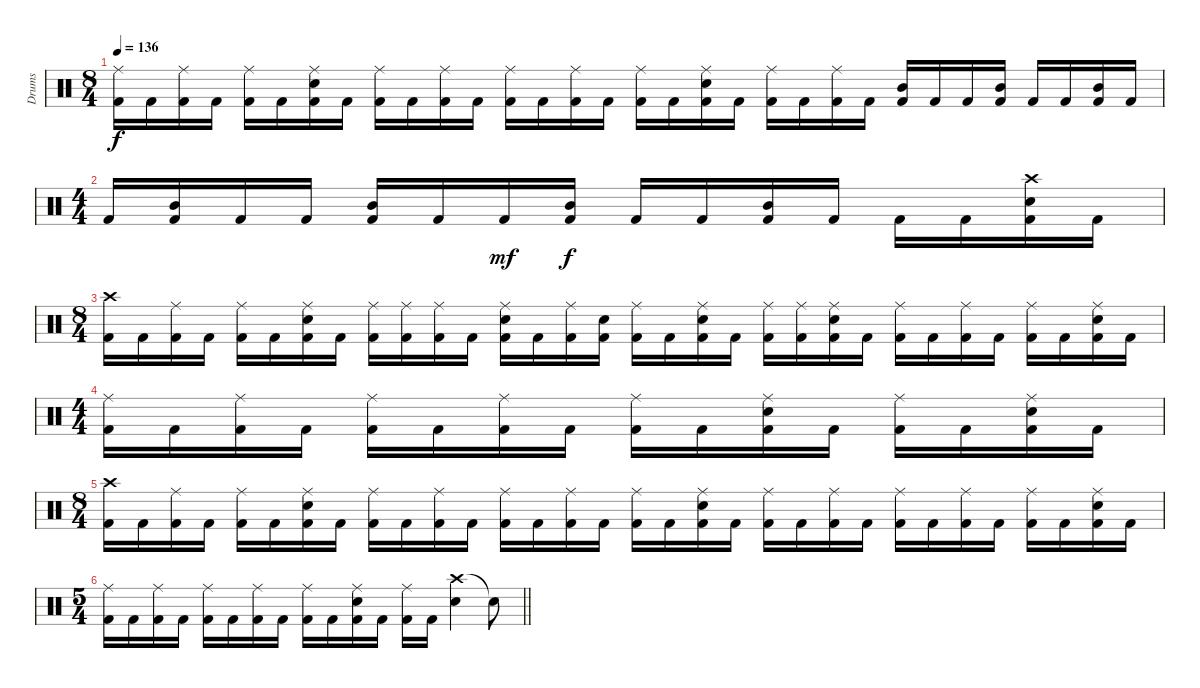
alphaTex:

\track ("Drums" "Drums") {instrument percussion}
\staff {score}
\articulation defaults
\ts (8 4)
\tempo 136
\clef neutral
\ks c
("Ride (middle)" "Kick (hit) 2").16{dy f} "Kick (hit) 2".16 ("Ride (middle)" "Kick (hit) 2").16 "Kick (hit) 2".16 ("Ride (middle)" "Kick (hit) 2").16 "Kick (hit) 2".16 ("Ride (middle)" "Snare (hit) 2" "Kick (hit) 2").16 "Kick (hit) 2".16 ("Ride (middle)" "Kick (hit) 2").16 "Kick (hit) 2".16 ("Ride (middle)" "Kick (hit) 2").16 "Kick (hit) 2".16 ("Ride (middle)" "Kick (hit) 2").16 "Kick (hit) 2".16 ("Ride (middle)" "Kick (hit) 2").16 "Kick (hit) 2".16 ("Ride (middle)" "Kick (hit) 2").16 "Kick (hit) 2".16 ("Ride (middle)" "Snare (hit) 2" "Kick (hit) 2").16 "Kick (hit) 2".16 ("Ride (middle)" "Kick (hit) 2").16 "Kick (hit) 2".16 ("Ride (middle)" "Kick (hit) 2").16 "Kick (hit) 2".16 ("Mid Tom (hit)" "Kick (hit) 2").16 "Kick (hit) 2".16 "Kick (hit) 2".16 ("Mid Tom (hit)" "Kick (hit) 2").16 "Kick (hit) 2".16 "Kick (hit) 2".16 ("Mid Tom (hit)" "Kick (hit) 2").16 "Kick (hit) 2".16 |
\ts (4 4)
"Kick (hit) 2".16 ("Mid Tom (hit)" "Kick (hit) 2").16 "Kick (hit) 2".16 "Kick (hit) 2".16 ("Mid Tom (hit)" "Kick (hit) 2").16 "Kick (hit) 2".16 "Kick (hit) 2".16{dy mf} ("Mid Tom (hit)" "Kick (hit) 2").16{dy f} "Kick (hit) 2".16 "Kick (hit) 2".16 ("Mid Tom (hit)" "Kick (hit) 2").16 "Kick (hit) 2".16 "Kick (hit) 2".16 "Kick (hit) 2".16 ("Crash high (hit)" "Snare (hit) 2" "Kick (hit) 2").16 "Kick (hit) 2".16 |
\ts (8 4)
("Crash high (hit)" "Kick (hit) 2").16 "Kick (hit) 2".16 ("Ride (middle)" "Kick (hit) 2").16 "Kick (hit) 2".16 ("Ride (middle)" "Kick (hit) 2").16 "Kick (hit) 2".16 ("Ride (middle)" "Snare (hit) 2" "Kick (hit) 2").16 "Kick (hit) 2".16 ("Ride (middle)" "Kick (hit) 2").16 ("Ride (middle)" "Kick (hit) 2").16 ("Ride (middle)" "Kick (hit) 2").16 "Kick (hit) 2".16 ("Ride (middle)" "Snare (hit) 2" "Kick (hit) 2").16 "Kick (hit) 2".16 ("Ride (middle)" "Kick (hit) 2").16 ("Snare (hit) 2" "Kick (hit) 2").16 ("Ride (middle)" "Kick (hit) 2").16 "Kick (hit) 2".16 ("Ride (middle)" "Snare (hit) 2" "Kick (hit) 2").16 "Kick (hit) 2".16 ("Ride (middle)" "Kick (hit) 2").16 ("Ride (middle)" "Kick (hit) 2").16 ("Ride (middle)" "Snare (hit) 2" "Kick (hit) 2").16 "Kick (hit) 2".16 ("Ride (middle)" "Kick (hit) 2").16 "Kick (hit) 2".16 ("Ride (middle)" "Kick (hit) 2").16 "Kick (hit) 2".16 ("Ride (middle)" "Kick (hit) 2").16 "Kick (hit) 2".16 ("Ride (middle)" "Snare (hit) 2" "Kick (hit) 2").16 "Kick (hit) 2".16 |
\ts (4 4)
("Ride (middle)" "Kick (hit) 2").16 "Kick (hit) 2".16 ("Ride (middle)" "Kick (hit) 2").16 "Kick (hit) 2".16 ("Ride (middle)" "Kick (hit) 2").16 "Kick (hit) 2".16 ("Ride (middle)" "Kick (hit) 2").16 "Kick (hit) 2".16 ("Ride (middle)" "Kick (hit) 2").16 "Kick (hit) 2".16 ("Ride (middle)" "Snare (hit) 2" "Kick (hit) 2").16 "Kick (hit) 2".16 ("Ride (middle)" "Kick (hit) 2").16 "Kick (hit) 2".16 ("Ride (middle)" "Snare (hit) 2" "Kick (hit) 2").16 "Kick (hit) 2".16 |
\ts (8 4)
("Crash high (hit)" "Kick (hit) 2").16 "Kick (hit) 2".16 ("Ride (middle)" "Kick (hit) 2").16 "Kick (hit) 2".16 ("Ride (middle)" "Kick (hit) 2").16 "Kick (hit) 2".16 ("Ride (middle)" "Snare (hit) 2" "Kick (hit) 2").16 "Kick (hit) 2".16 ("Ride (middle)" "Kick (hit) 2").16 "Kick (hit) 2".16 ("Ride (middle)" "Kick (hit) 2").16 "Kick (hit) 2".16 ("Ride (middle)" "Kick (hit) 2").16 "Kick (hit) 2".16 ("Ride (middle)" "Kick (hit) 2").16 "Kick (hit) 2".16 ("Ride (middle)" "Kick (hit) 2").16 "Kick (hit) 2".16 ("Ride (middle)" "Snare (hit) 2" "Kick (hit) 2").16 "Kick (hit) 2".16 ("Ride (middle)" "Kick (hit) 2").16 "Kick (hit) 2".16 ("Ride (middle)" "Kick (hit) 2").16 "Kick (hit) 2".16 ("Ride (middle)" "Kick (hit) 2").16 "Kick (hit) 2".16 ("Ride (middle)" "Kick (hit) 2").16 "Kick (hit) 2".16 ("Ride (middle)" "Kick (hit) 2").16 "Kick (hit) 2".16 ("Ride (middle)" "Snare (hit) 2" "Kick (hit) 2").16 "Kick (hit) 2".16 |
\ts (5 4)
\barLineRight lightlight
("Ride (middle)" "Kick (hit) 2").16 "Kick (hit) 2".16 ("Ride (middle)" "Kick (hit) 2").16 "Kick (hit) 2".16 ("Ride (middle)" "Kick (hit) 2").16 "Kick (hit) 2".16 ("Ride (middle)" "Kick (hit) 2").16 "Kick (hit) 2".16 ("Ride (middle)" "Kick (hit) 2").16 "Kick (hit) 2".16 ("Ride (middle)" "Snare (hit) 2" "Kick (hit) 2").16 "Kick (hit) 2".16 ("Ride (middle)" "Kick (hit) 2").16 "Kick (hit) 2".16 ("Crash high (hit)" "Snare (hit) 2").4 "Snare (hit)"{t}.8
